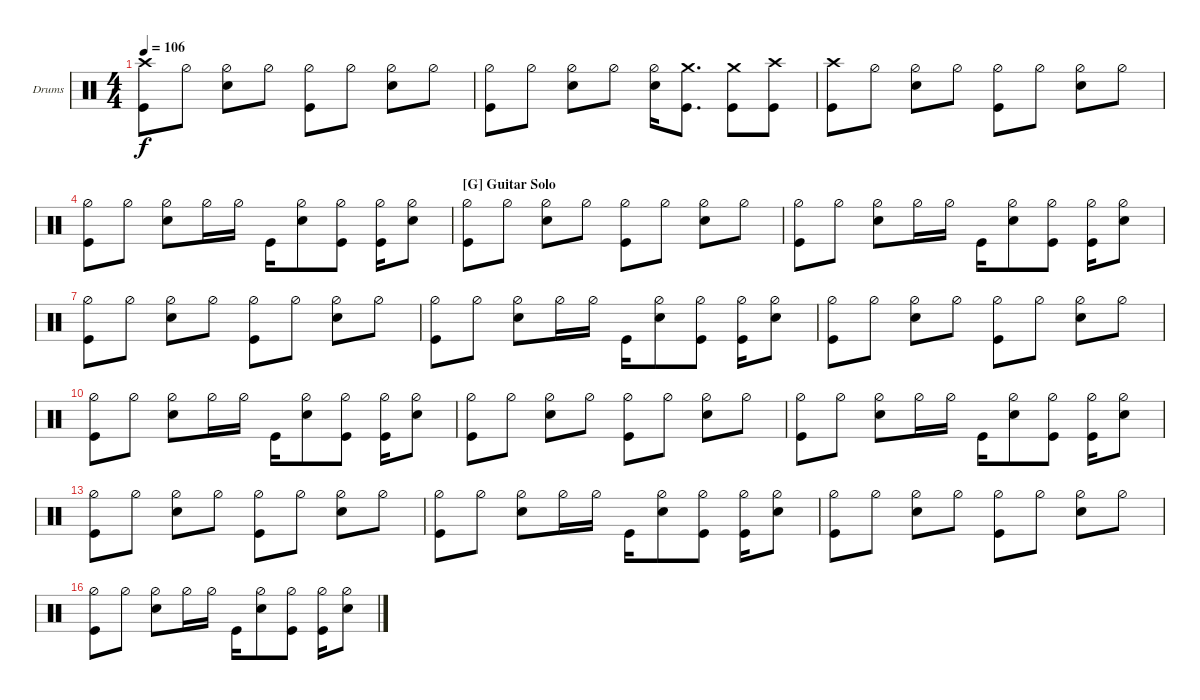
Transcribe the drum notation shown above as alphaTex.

\bracketExtendMode nobrackets
\firstSystemTrackNameOrientation horizontal
\otherSystemsTrackNameOrientation horizontal
\defaultBarNumberDisplay FirstOfSystem
\track ("Herman Rarebell" "Drums") {instrument percussion}
\staff {score}
\articulation defaults
\ts (4 4)
\tempo 106
\clef neutral
\scale
0.506119
\ks c
("Kick (hit)" "Crash high (hit)").8{dy f} "Hi-Hat (half)".8 ("Snare (hit) 2" "Hi-Hat (half)").8 "Hi-Hat (half)".8 ("Kick (hit)" "Hi-Hat (half)").8 "Hi-Hat (half)".8 ("Snare (hit) 2" "Hi-Hat (half)").8 "Hi-Hat (half)".8 |
\scale
0.50006 ("Kick (hit)" "Hi-Hat (half)").8 "Hi-Hat (half)".8 ("Snare (hit) 2" "Hi-Hat (half)").8 "Hi-Hat (half)".8 ("Snare (hit) 2" "Hi-Hat (half)").16 ("Kick (hit)" "Crash medium (hit)").8{d} ("Kick (hit)" "Crash medium (hit)").8 ("Kick (hit)" "Crash high (hit)").8 |
\scale
0.499709 ("Kick (hit)" "Crash high (hit)").8 "Hi-Hat (half)".8 ("Snare (hit) 2" "Hi-Hat (half)").8 "Hi-Hat (half)".8 ("Kick (hit)" "Hi-Hat (half)").8 "Hi-Hat (half)".8 ("Snare (hit) 2" "Hi-Hat (half)").8 "Hi-Hat (half)".8 |
\scale
0.500515 ("Kick (hit)" "Hi-Hat (half)").8 "Hi-Hat (half)".8 ("Snare (hit) 2" "Hi-Hat (half)").8 "Hi-Hat (half)".16 "Hi-Hat (half)".16 "Kick (hit)".16 ("Snare (hit) 2" "Hi-Hat (half)").8 ("Kick (hit)" "Hi-Hat (half)").8 ("Kick (hit)" "Hi-Hat (half)").16 ("Snare (hit) 2" "Hi-Hat (half)").8 |
\section ("G" "Guitar Solo")
\scale
0.498093 ("Kick (hit)" "Hi-Hat (half)").8 "Hi-Hat (half)".8 ("Snare (hit) 2" "Hi-Hat (half)").8 "Hi-Hat (half)".8 ("Kick (hit)" "Hi-Hat (half)").8 "Hi-Hat (half)".8 ("Snare (hit) 2" "Hi-Hat (half)").8 "Hi-Hat (half)".8 |
("Kick (hit)" "Hi-Hat (half)").8 "Hi-Hat (half)".8 ("Snare (hit) 2" "Hi-Hat (half)").8 "Hi-Hat (half)".16 "Hi-Hat (half)".16 "Kick (hit)".16 ("Snare (hit) 2" "Hi-Hat (half)").8 ("Kick (hit)" "Hi-Hat (half)").8 ("Kick (hit)" "Hi-Hat (half)").16 ("Snare (hit) 2" "Hi-Hat (half)").8 |
("Kick (hit)" "Hi-Hat (half)").8 "Hi-Hat (half)".8 ("Snare (hit) 2" "Hi-Hat (half)").8 "Hi-Hat (half)".8 ("Kick (hit)" "Hi-Hat (half)").8 "Hi-Hat (half)".8 ("Snare (hit) 2" "Hi-Hat (half)").8 "Hi-Hat (half)".8 |
("Kick (hit)" "Hi-Hat (half)").8 "Hi-Hat (half)".8 ("Snare (hit) 2" "Hi-Hat (half)").8 "Hi-Hat (half)".16 "Hi-Hat (half)".16 "Kick (hit)".16 ("Snare (hit) 2" "Hi-Hat (half)").8 ("Kick (hit)" "Hi-Hat (half)").8 ("Kick (hit)" "Hi-Hat (half)").16 ("Snare (hit) 2" "Hi-Hat (half)").8 |
("Kick (hit)" "Hi-Hat (half)").8 "Hi-Hat (half)".8 ("Snare (hit) 2" "Hi-Hat (half)").8 "Hi-Hat (half)".8 ("Kick (hit)" "Hi-Hat (half)").8 "Hi-Hat (half)".8 ("Snare (hit) 2" "Hi-Hat (half)").8 "Hi-Hat (half)".8 |
\scale
0.502001 ("Kick (hit)" "Hi-Hat (half)").8 "Hi-Hat (half)".8 ("Snare (hit) 2" "Hi-Hat (half)").8 "Hi-Hat (half)".16 "Hi-Hat (half)".16 "Kick (hit)".16 ("Snare (hit) 2" "Hi-Hat (half)").8 ("Kick (hit)" "Hi-Hat (half)").8 ("Kick (hit)" "Hi-Hat (half)").16 ("Snare (hit) 2" "Hi-Hat (half)").8 |
\scale
0.495879 ("Kick (hit)" "Hi-Hat (half)").8 "Hi-Hat (half)".8 ("Snare (hit) 2" "Hi-Hat (half)").8 "Hi-Hat (half)".8 ("Kick (hit)" "Hi-Hat (half)").8 "Hi-Hat (half)".8 ("Snare (hit) 2" "Hi-Hat (half)").8 "Hi-Hat (half)".8 |
\scale
0.501907 ("Kick (hit)" "Hi-Hat (half)").8 "Hi-Hat (half)".8 ("Snare (hit) 2" "Hi-Hat (half)").8 "Hi-Hat (half)".16 "Hi-Hat (half)".16 "Kick (hit)".16 ("Snare (hit) 2" "Hi-Hat (half)").8 ("Kick (hit)" "Hi-Hat (half)").8 ("Kick (hit)" "Hi-Hat (half)").16 ("Snare (hit) 2" "Hi-Hat (half)").8 |
\scale
0.496849 ("Kick (hit)" "Hi-Hat (half)").8 "Hi-Hat (half)".8 ("Snare (hit) 2" "Hi-Hat (half)").8 "Hi-Hat (half)".8 ("Kick (hit)" "Hi-Hat (half)").8 "Hi-Hat (half)".8 ("Snare (hit) 2" "Hi-Hat (half)").8 "Hi-Hat (half)".8 |
\scale
0.50469 ("Kick (hit)" "Hi-Hat (half)").8 "Hi-Hat (half)".8 ("Snare (hit) 2" "Hi-Hat (half)").8 "Hi-Hat (half)".16 "Hi-Hat (half)".16 "Kick (hit)".16 ("Snare (hit) 2" "Hi-Hat (half)").8 ("Kick (hit)" "Hi-Hat (half)").8 ("Kick (hit)" "Hi-Hat (half)").16 ("Snare (hit) 2" "Hi-Hat (half)").8 |
\scale
0.49544 ("Kick (hit)" "Hi-Hat (half)").8 "Hi-Hat (half)".8 ("Snare (hit) 2" "Hi-Hat (half)").8 "Hi-Hat (half)".8 ("Kick (hit)" "Hi-Hat (half)").8 "Hi-Hat (half)".8 ("Snare (hit) 2" "Hi-Hat (half)").8 "Hi-Hat (half)".8 |
\scale
0.506264 ("Kick (hit)" "Hi-Hat (half)").8 "Hi-Hat (half)".8 ("Snare (hit) 2" "Hi-Hat (half)").8 "Hi-Hat (half)".16 "Hi-Hat (half)".16 "Kick (hit)".16 ("Snare (hit) 2" "Hi-Hat (half)").8 ("Kick (hit)" "Hi-Hat (half)").8 ("Kick (hit)" "Hi-Hat (half)").16 ("Snare (hit) 2" "Hi-Hat (half)").8
